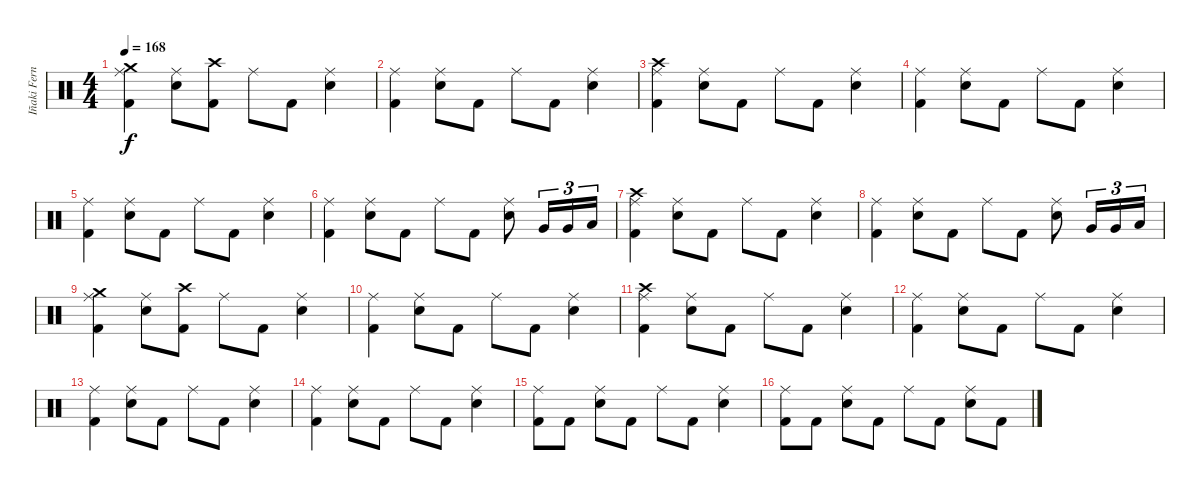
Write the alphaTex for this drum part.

\track ("Iñaki Fernández" "Iñaki Fern") {instrument percussion}
\staff {score}
\articulation defaults
\ts (4 4)
\tempo 168
\clef neutral
\ks c
("Ride (middle)" "Crash medium (hit)" "Kick (hit) 2").4{dy f} ("Ride (middle)" "Snare (hit) 2").8 ("Crash high (hit)" "Kick (hit) 2").8 "Ride (middle)".8 "Kick (hit) 2".8 ("Ride (middle)" "Snare (hit) 2").4 |
("Ride (middle)" "Kick (hit) 2").4 ("Ride (middle)" "Snare (hit) 2").8 "Kick (hit) 2".8 "Ride (middle)".8 "Kick (hit) 2".8 ("Ride (middle)" "Snare (hit) 2").4 |
("Ride (middle)" "Crash high (hit)" "Kick (hit) 2").4 ("Ride (middle)" "Snare (hit) 2").8 "Kick (hit) 2".8 "Ride (middle)".8 "Kick (hit) 2".8 ("Ride (middle)" "Snare (hit) 2").4 |
("Ride (middle)" "Kick (hit) 2").4 ("Ride (middle)" "Snare (hit) 2").8 "Kick (hit) 2".8 "Ride (middle)".8 "Kick (hit) 2".8 ("Ride (middle)" "Snare (hit) 2").4 |
("Ride (middle)" "Kick (hit) 2").4 ("Ride (middle)" "Snare (hit) 2").8 "Kick (hit) 2".8 "Ride (middle)".8 "Kick (hit) 2".8 ("Ride (middle)" "Snare (hit) 2").4 |
("Ride (middle)" "Kick (hit) 2").4 ("Ride (middle)" "Snare (hit) 2").8 "Kick (hit) 2".8 "Ride (middle)".8 "Kick (hit) 2".8 ("Ride (middle)" "Snare (hit) 2").8 "Very Low Tom (hit)".16{tu (3 2)} "Very Low Tom (hit)".16{tu (3 2)} "Low Floor Tom (hit)".16{tu (3 2)} |
("Ride (middle)" "Crash high (hit)" "Kick (hit) 2").4 ("Ride (middle)" "Snare (hit) 2").8 "Kick (hit) 2".8 "Ride (middle)".8 "Kick (hit) 2".8 ("Ride (middle)" "Snare (hit) 2").4 |
("Ride (middle)" "Kick (hit) 2").4 ("Ride (middle)" "Snare (hit) 2").8 "Kick (hit) 2".8 "Ride (middle)".8 "Kick (hit) 2".8 ("Ride (middle)" "Snare (hit) 2").8 "Very Low Tom (hit)".16{tu (3 2)} "Very Low Tom (hit)".16{tu (3 2)} "Low Floor Tom (hit)".16{tu (3 2)} |
("Ride (middle)" "Crash medium (hit)" "Kick (hit) 2").4 ("Ride (middle)" "Snare (hit) 2").8 ("Crash high (hit)" "Kick (hit) 2").8 "Ride (middle)".8 "Kick (hit) 2".8 ("Ride (middle)" "Snare (hit) 2").4 |
("Ride (middle)" "Kick (hit) 2").4 ("Ride (middle)" "Snare (hit) 2").8 "Kick (hit) 2".8 "Ride (middle)".8 "Kick (hit) 2".8 ("Ride (middle)" "Snare (hit) 2").4 |
("Ride (middle)" "Crash high (hit)" "Kick (hit) 2").4 ("Ride (middle)" "Snare (hit) 2").8 "Kick (hit) 2".8 "Ride (middle)".8 "Kick (hit) 2".8 ("Ride (middle)" "Snare (hit) 2").4 |
("Ride (middle)" "Kick (hit) 2").4 ("Ride (middle)" "Snare (hit) 2").8 "Kick (hit) 2".8 "Ride (middle)".8 "Kick (hit) 2".8 ("Ride (middle)" "Snare (hit) 2").4 |
("Ride (middle)" "Kick (hit) 2").4 ("Ride (middle)" "Snare (hit) 2").8 "Kick (hit) 2".8 "Ride (middle)".8 "Kick (hit) 2".8 ("Ride (middle)" "Snare (hit) 2").4 |
("Ride (middle)" "Kick (hit) 2").4 ("Ride (middle)" "Snare (hit) 2").8 "Kick (hit) 2".8 "Ride (middle)".8 "Kick (hit) 2".8 ("Ride (middle)" "Snare (hit) 2").4 |
("Ride (middle)" "Kick (hit) 2").8 "Kick (hit) 2".8 ("Ride (middle)" "Snare (hit) 2").8 "Kick (hit) 2".8 "Ride (middle)".8 "Kick (hit) 2".8 ("Ride (middle)" "Snare (hit) 2").4 |
("Ride (middle)" "Kick (hit) 2").8 "Kick (hit) 2".8 ("Ride (middle)" "Snare (hit) 2").8 "Kick (hit) 2".8 "Ride (middle)".8 "Kick (hit) 2".8 ("Ride (middle)" "Snare (hit) 2").8 "Kick (hit) 2".8
